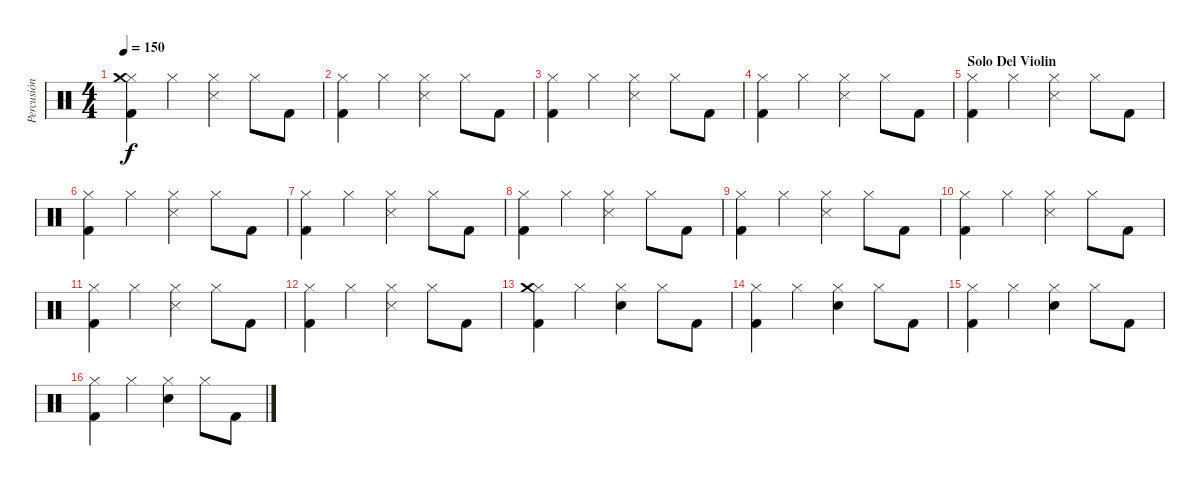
\track ("Percusión" "Percusión") {instrument percussion}
\staff {score}
\articulation defaults
\ts (4 4)
\tempo 150
\clef neutral
\ks c
("Hi-Hat (closed)" "Crash medium (hit)" "Kick (hit) 2").4{dy f} "Hi-Hat (closed)".4 ("Hi-Hat (closed)" "Metronome (hit)").4 "Hi-Hat (closed)".8 "Kick (hit) 2".8 |
("Hi-Hat (closed)" "Kick (hit) 2").4 "Hi-Hat (closed)".4 ("Hi-Hat (closed)" "Metronome (hit)").4 "Hi-Hat (closed)".8 "Kick (hit) 2".8 |
("Hi-Hat (closed)" "Kick (hit) 2").4 "Hi-Hat (closed)".4 ("Hi-Hat (closed)" "Metronome (hit)").4 "Hi-Hat (closed)".8 "Kick (hit) 2".8 |
("Hi-Hat (closed)" "Kick (hit) 2").4 "Hi-Hat (closed)".4 ("Hi-Hat (closed)" "Metronome (hit)").4 "Hi-Hat (closed)".8 "Kick (hit) 2".8 |
\section ("" "Solo Del Violin")
("Hi-Hat (closed)" "Kick (hit) 2").4 "Hi-Hat (closed)".4 ("Hi-Hat (closed)" "Metronome (hit)").4 "Hi-Hat (closed)".8 "Kick (hit) 2".8 |
("Hi-Hat (closed)" "Kick (hit) 2").4 "Hi-Hat (closed)".4 ("Hi-Hat (closed)" "Metronome (hit)").4 "Hi-Hat (closed)".8 "Kick (hit) 2".8 |
("Hi-Hat (closed)" "Kick (hit) 2").4 "Hi-Hat (closed)".4 ("Hi-Hat (closed)" "Metronome (hit)").4 "Hi-Hat (closed)".8 "Kick (hit) 2".8 |
("Hi-Hat (closed)" "Kick (hit) 2").4 "Hi-Hat (closed)".4 ("Hi-Hat (closed)" "Metronome (hit)").4 "Hi-Hat (closed)".8 "Kick (hit) 2".8 |
("Hi-Hat (closed)" "Kick (hit) 2").4 "Hi-Hat (closed)".4 ("Hi-Hat (closed)" "Metronome (hit)").4 "Hi-Hat (closed)".8 "Kick (hit) 2".8 |
("Hi-Hat (closed)" "Kick (hit) 2").4 "Hi-Hat (closed)".4 ("Hi-Hat (closed)" "Metronome (hit)").4 "Hi-Hat (closed)".8 "Kick (hit) 2".8 |
("Hi-Hat (closed)" "Kick (hit) 2").4 "Hi-Hat (closed)".4 ("Hi-Hat (closed)" "Metronome (hit)").4 "Hi-Hat (closed)".8 "Kick (hit) 2".8 |
("Hi-Hat (closed)" "Kick (hit) 2").4 "Hi-Hat (closed)".4 ("Hi-Hat (closed)" "Metronome (hit)").4 "Hi-Hat (closed)".8 "Kick (hit) 2".8 |
("Hi-Hat (closed)" "Crash medium (hit)" "Kick (hit) 2").4 "Hi-Hat (closed)".4 ("Hi-Hat (closed)" "Snare (hit) 2").4 "Hi-Hat (closed)".8 "Kick (hit) 2".8 |
("Hi-Hat (closed)" "Kick (hit) 2").4 "Hi-Hat (closed)".4 ("Hi-Hat (closed)" "Snare (hit) 2").4 "Hi-Hat (closed)".8 "Kick (hit) 2".8 |
("Hi-Hat (closed)" "Kick (hit) 2").4 "Hi-Hat (closed)".4 ("Hi-Hat (closed)" "Snare (hit) 2").4 "Hi-Hat (closed)".8 "Kick (hit) 2".8 |
("Hi-Hat (closed)" "Kick (hit) 2").4 "Hi-Hat (closed)".4 ("Hi-Hat (closed)" "Snare (hit) 2").4 "Hi-Hat (closed)".8 "Kick (hit) 2".8
